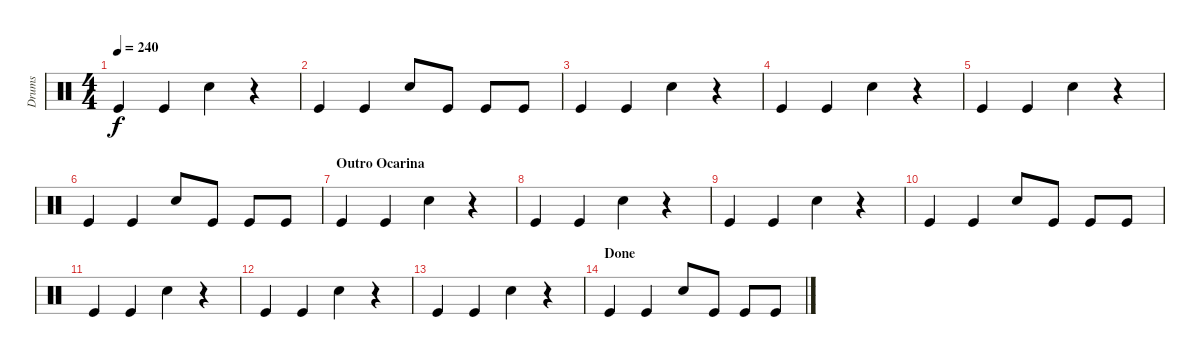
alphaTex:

\track ("Drums" "Drums") {instrument percussion}
\staff {score}
\articulation defaults
\ts (4 4)
\tempo 240
\clef neutral
\ks c "Kick (hit)".4{dy f} "Kick (hit)".4 "Snare (hit) 2".4
r.4 |
"Kick (hit)".4 "Kick (hit)".4 "Snare (hit) 2".8 "Kick (hit)".8 "Kick (hit)".8 "Kick (hit)".8 |
"Kick (hit)".4 "Kick (hit)".4 "Snare (hit) 2".4 r.4 |
"Kick (hit)".4 "Kick (hit)".4 "Snare (hit) 2".4 r.4 |
"Kick (hit)".4 "Kick (hit)".4 "Snare (hit) 2".4 r.4 |
"Kick (hit)".4 "Kick (hit)".4 "Snare (hit) 2".8 "Kick (hit)".8 "Kick (hit)".8 "Kick (hit)".8 |
\section ("" "Outro Ocarina")
"Kick (hit)".4 "Kick (hit)".4 "Snare (hit) 2".4 r.4 |
"Kick (hit)".4 "Kick (hit)".4 "Snare (hit) 2".4 r.4 |
"Kick (hit)".4 "Kick (hit)".4 "Snare (hit) 2".4 r.4 |
"Kick (hit)".4 "Kick (hit)".4 "Snare (hit) 2".8 "Kick (hit)".8 "Kick (hit)".8 "Kick (hit)".8 |
"Kick (hit)".4 "Kick (hit)".4 "Snare (hit) 2".4 r.4 |
"Kick (hit)".4 "Kick (hit)".4 "Snare (hit) 2".4 r.4 |
"Kick (hit)".4 "Kick (hit)".4 "Snare (hit) 2".4 r.4 |
\section ("" "Done")
"Kick (hit)".4 "Kick (hit)".4 "Snare (hit) 2".8 "Kick (hit)".8 "Kick (hit)".8 "Kick (hit)".8
